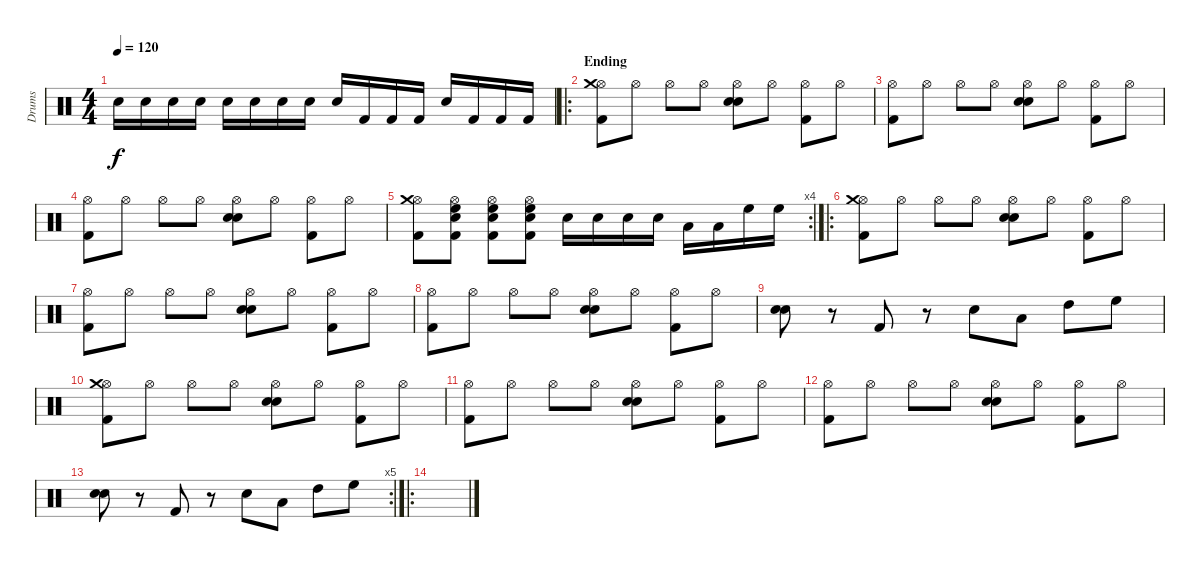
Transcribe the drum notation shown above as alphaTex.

\track ("Drums" "Drums") {instrument percussion}
\staff {score}
\articulation defaults
\ts (4 4)
\tempo 120
\clef neutral
\ks c "Snare (hit) 2".16{dy f} "Snare (hit) 2".16 "Snare (hit) 2".16 "Snare (hit) 2".16 "Snare (hit) 2".16 "Snare (hit) 2".16 "Snare (hit) 2".16 "Snare (hit) 2".16 "Snare (hit) 2".16 "Kick (hit) 2".16 "Kick (hit) 2".16 "Kick (hit) 2".16 "Snare (hit) 2".16 "Kick (hit) 2".16 "Kick (hit) 2".16 "Kick (hit) 2".16
|
\ro
\section ("" "Ending")
("Hi-Hat (open)" "Kick (hit) 2" "Crash medium (hit)").8 "Hi-Hat (open)".8 "Hi-Hat (open)".8 "Hi-Hat (open)".8 ("Hi-Hat (open)" "Snare (hit) 2" "Electric Snare (hit)").8 "Hi-Hat (open)".8 ("Hi-Hat (open)" "Kick (hit) 2").8 "Hi-Hat (open)".8 |
("Hi-Hat (open)" "Kick (hit) 2").8 "Hi-Hat (open)".8 "Hi-Hat (open)".8 "Hi-Hat (open)".8 ("Hi-Hat (open)" "Snare (hit) 2" "Electric Snare (hit)").8 "Hi-Hat (open)".8 ("Hi-Hat (open)" "Kick (hit) 2").8 "Hi-Hat (open)".8 |
("Hi-Hat (open)" "Kick (hit) 2").8 "Hi-Hat (open)".8 "Hi-Hat (open)".8 "Hi-Hat (open)".8 ("Hi-Hat (open)" "Snare (hit) 2" "Electric Snare (hit)").8 "Hi-Hat (open)".8 ("Hi-Hat (open)" "Kick (hit) 2").8 "Hi-Hat (open)".8 |
\rc 4
("Hi-Hat (open)" "Kick (hit) 2" "Crash medium (hit)").8 ("Hi-Hat (open)" "Kick (hit) 2" "Snare (hit) 2" "High Floor Tom (hit)").8 ("Hi-Hat (open)" "Kick (hit) 2" "Snare (hit) 2" "High Floor Tom (hit)").8 ("Hi-Hat (open)" "Kick (hit) 2" "Snare (hit) 2" "High Floor Tom (hit)").8 "Snare (hit) 2".16 "Snare (hit) 2".16 "Snare (hit) 2".16 "Snare (hit) 2".16 "Low Tom (hit)".16 "Low Tom (hit)".16 "High Floor Tom (hit)".16 "High Floor Tom (hit)".16 |
\ro
("Hi-Hat (open)" "Kick (hit) 2" "Crash medium (hit)").8 "Hi-Hat (open)".8 "Hi-Hat (open)".8 "Hi-Hat (open)".8 ("Hi-Hat (open)" "Snare (hit) 2" "Electric Snare (hit)").8 "Hi-Hat (open)".8 ("Hi-Hat (open)" "Kick (hit) 2").8 "Hi-Hat (open)".8 |
("Hi-Hat (open)" "Kick (hit) 2").8 "Hi-Hat (open)".8 "Hi-Hat (open)".8 "Hi-Hat (open)".8 ("Hi-Hat (open)" "Snare (hit) 2" "Electric Snare (hit)").8 "Hi-Hat (open)".8 ("Hi-Hat (open)" "Kick (hit) 2").8 "Hi-Hat (open)".8 |
("Hi-Hat (open)" "Kick (hit) 2").8 "Hi-Hat (open)".8 "Hi-Hat (open)".8 "Hi-Hat (open)".8 ("Hi-Hat (open)" "Snare (hit) 2" "Electric Snare (hit)").8 "Hi-Hat (open)".8 ("Hi-Hat (open)" "Kick (hit) 2").8 "Hi-Hat (open)".8 |
("Snare (hit) 2" "Electric Snare (hit)").8 r.8 "Kick (hit) 2".8 r.8 "Snare (hit) 2".8 "Low Tom (hit)".8 "High Tom (hit)".8 "High Floor Tom (hit)".8 |
("Hi-Hat (open)" "Kick (hit) 2" "Crash medium (hit)").8 "Hi-Hat (open)".8 "Hi-Hat (open)".8 "Hi-Hat (open)".8 ("Hi-Hat (open)" "Snare (hit) 2" "Electric Snare (hit)").8 "Hi-Hat (open)".8 ("Hi-Hat (open)" "Kick (hit) 2").8 "Hi-Hat (open)".8 |
("Hi-Hat (open)" "Kick (hit) 2").8 "Hi-Hat (open)".8 "Hi-Hat (open)".8 "Hi-Hat (open)".8 ("Hi-Hat (open)" "Snare (hit) 2" "Electric Snare (hit)").8 "Hi-Hat (open)".8 ("Hi-Hat (open)" "Kick (hit) 2").8 "Hi-Hat (open)".8 |
("Hi-Hat (open)" "Kick (hit) 2").8 "Hi-Hat (open)".8 "Hi-Hat (open)".8 "Hi-Hat (open)".8 ("Hi-Hat (open)" "Snare (hit) 2" "Electric Snare (hit)").8 "Hi-Hat (open)".8 ("Hi-Hat (open)" "Kick (hit) 2").8 "Hi-Hat (open)".8 |
\rc 5
("Snare (hit) 2" "Electric Snare (hit)").8 r.8 "Kick (hit) 2".8 r.8 "Snare (hit) 2".8 "Low Tom (hit)".8 "High Tom (hit)".8 "High Floor Tom (hit)".8 |
\ro
